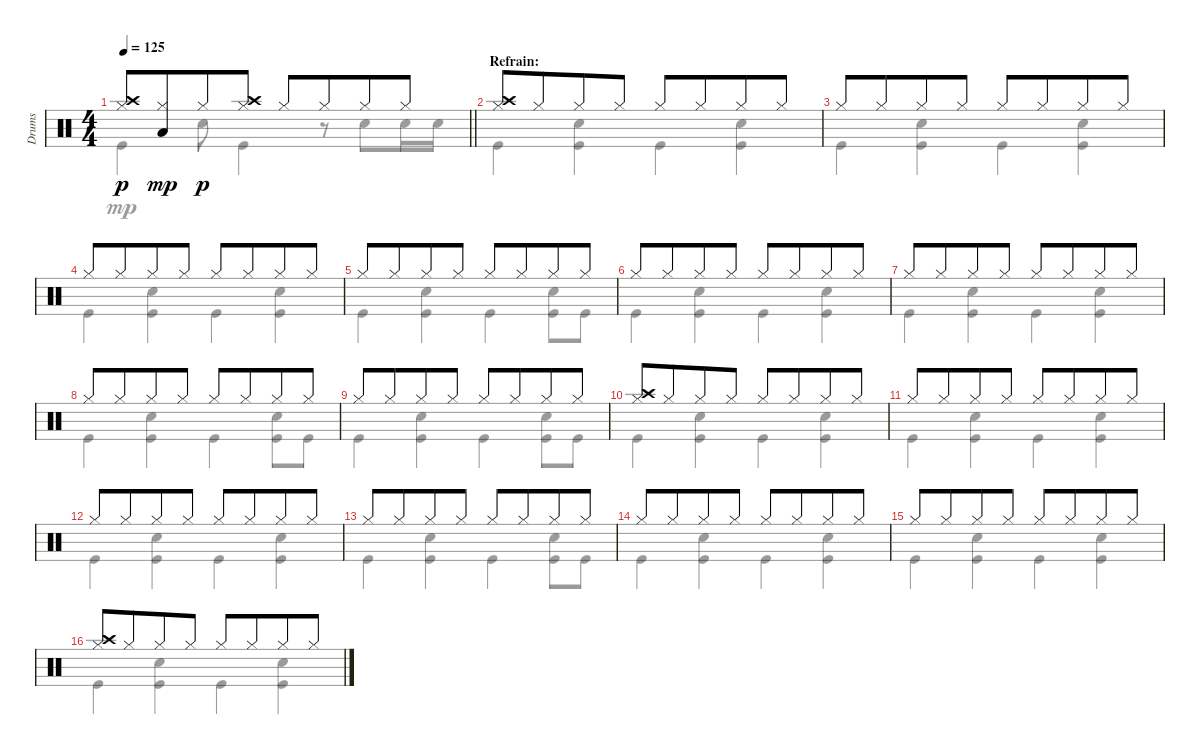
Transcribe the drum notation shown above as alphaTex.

\track ("Drums" "Drums") {instrument percussion}
\staff {score}
\articulation defaults
\voice
\ts (4 4)
\tempo 125
\clef neutral
\barLineRight lightlight
\ks c
("Hi-Hat (closed)" "Crash high (hit)").8{dy p} ("Hi-Hat (closed)" "Low Tom (hit)").8{dy mp beam merge} "Hi-Hat (closed)".8{dy p} ("Hi-Hat (closed)" "Crash high (hit)").8 "Hi-Hat (closed)".8 "Hi-Hat (closed)".8{beam merge} "Hi-Hat (closed)".8 "Hi-Hat (closed)".8 |
\section ("" "Refrain:")
("Hi-Hat (closed)" "Crash high (hit)").8 "Hi-Hat (closed)".8{beam merge} "Hi-Hat (closed)".8 "Hi-Hat (closed)".8 "Hi-Hat (closed)".8 "Hi-Hat (closed)".8{beam merge} "Hi-Hat (closed)".8 "Hi-Hat (closed)".8 |
"Hi-Hat (closed)".8 "Hi-Hat (closed)".8{beam merge} "Hi-Hat (closed)".8 "Hi-Hat (closed)".8 "Hi-Hat (closed)".8 "Hi-Hat (closed)".8{beam merge} "Hi-Hat (closed)".8 "Hi-Hat (closed)".8 |
"Hi-Hat (closed)".8 "Hi-Hat (closed)".8{beam merge} "Hi-Hat (closed)".8 "Hi-Hat (closed)".8 "Hi-Hat (closed)".8 "Hi-Hat (closed)".8{beam merge} "Hi-Hat (closed)".8 "Hi-Hat (closed)".8 |
"Hi-Hat (closed)".8 "Hi-Hat (closed)".8{beam merge} "Hi-Hat (closed)".8 "Hi-Hat (closed)".8 "Hi-Hat (closed)".8 "Hi-Hat (closed)".8{beam merge} "Hi-Hat (closed)".8 "Hi-Hat (closed)".8 |
"Hi-Hat (closed)".8 "Hi-Hat (closed)".8{beam merge} "Hi-Hat (closed)".8 "Hi-Hat (closed)".8 "Hi-Hat (closed)".8 "Hi-Hat (closed)".8{beam merge} "Hi-Hat (closed)".8 "Hi-Hat (closed)".8 |
"Hi-Hat (closed)".8 "Hi-Hat (closed)".8{beam merge} "Hi-Hat (closed)".8 "Hi-Hat (closed)".8 "Hi-Hat (closed)".8 "Hi-Hat (closed)".8{beam merge} "Hi-Hat (closed)".8 "Hi-Hat (closed)".8 |
"Hi-Hat (closed)".8 "Hi-Hat (closed)".8{beam merge} "Hi-Hat (closed)".8 "Hi-Hat (closed)".8 "Hi-Hat (closed)".8 "Hi-Hat (closed)".8{beam merge} "Hi-Hat (closed)".8 "Hi-Hat (closed)".8 |
"Hi-Hat (closed)".8 "Hi-Hat (closed)".8{beam merge} "Hi-Hat (closed)".8 "Hi-Hat (closed)".8 "Hi-Hat (closed)".8 "Hi-Hat (closed)".8{beam merge} "Hi-Hat (closed)".8 "Hi-Hat (closed)".8 |
("Hi-Hat (closed)" "Crash high (hit)").8 "Hi-Hat (closed)".8{beam merge} "Hi-Hat (closed)".8 "Hi-Hat (closed)".8 "Hi-Hat (closed)".8 "Hi-Hat (closed)".8{beam merge} "Hi-Hat (closed)".8 "Hi-Hat (closed)".8 |
"Hi-Hat (closed)".8 "Hi-Hat (closed)".8{beam merge} "Hi-Hat (closed)".8 "Hi-Hat (closed)".8 "Hi-Hat (closed)".8 "Hi-Hat (closed)".8{beam merge} "Hi-Hat (closed)".8 "Hi-Hat (closed)".8 |
"Hi-Hat (closed)".8 "Hi-Hat (closed)".8{beam merge} "Hi-Hat (closed)".8 "Hi-Hat (closed)".8 "Hi-Hat (closed)".8 "Hi-Hat (closed)".8{beam merge} "Hi-Hat (closed)".8 "Hi-Hat (closed)".8 |
"Hi-Hat (closed)".8 "Hi-Hat (closed)".8{beam merge} "Hi-Hat (closed)".8 "Hi-Hat (closed)".8 "Hi-Hat (closed)".8 "Hi-Hat (closed)".8{beam merge} "Hi-Hat (closed)".8 "Hi-Hat (closed)".8 |
"Hi-Hat (closed)".8 "Hi-Hat (closed)".8{beam merge} "Hi-Hat (closed)".8 "Hi-Hat (closed)".8 "Hi-Hat (closed)".8 "Hi-Hat (closed)".8{beam merge} "Hi-Hat (closed)".8 "Hi-Hat (closed)".8 |
"Hi-Hat (closed)".8 "Hi-Hat (closed)".8{beam merge} "Hi-Hat (closed)".8 "Hi-Hat (closed)".8 "Hi-Hat (closed)".8 "Hi-Hat (closed)".8{beam merge} "Hi-Hat (closed)".8 "Hi-Hat (closed)".8 |
("Hi-Hat (closed)" "Crash high (hit)").8 "Hi-Hat (closed)".8{beam merge} "Hi-Hat (closed)".8 "Hi-Hat (closed)".8 "Hi-Hat (closed)".8 "Hi-Hat (closed)".8{beam merge} "Hi-Hat (closed)".8 "Hi-Hat (closed)".8
\voice
\clef neutral
\ottava regular
\simile none
\barLineRight lightlight
\ks c "Kick (hit)".4{dy mp} "Snare (hit) 2".8 "Kick (hit)".4
r.8 "Snare (hit) 2".8 "Snare (hit) 2".16 "Snare (hit) 2".16 |
"Kick (hit)".4 ("Snare (hit) 2" "Kick (hit)").4 "Kick (hit)".4 ("Snare (hit) 2" "Kick (hit)").4 |
"Kick (hit)".4 ("Snare (hit) 2" "Kick (hit)").4 "Kick (hit)".4 ("Snare (hit) 2" "Kick (hit)").4 |
"Kick (hit)".4 ("Snare (hit) 2" "Kick (hit)").4 "Kick (hit)".4 ("Snare (hit) 2" "Kick (hit)").4 |
"Kick (hit)".4 ("Snare (hit) 2" "Kick (hit)").4 "Kick (hit)".4 ("Snare (hit) 2" "Kick (hit)").8 "Kick (hit)".8 |
"Kick (hit)".4 ("Snare (hit) 2" "Kick (hit)").4 "Kick (hit)".4 ("Snare (hit) 2" "Kick (hit)").4 |
"Kick (hit)".4 ("Snare (hit) 2" "Kick (hit)").4 "Kick (hit)".4 ("Snare (hit) 2" "Kick (hit)").4 |
"Kick (hit)".4 ("Snare (hit) 2" "Kick (hit)").4 "Kick (hit)".4 ("Snare (hit) 2" "Kick (hit)").8 "Kick (hit)".8 |
"Kick (hit)".4 ("Snare (hit) 2" "Kick (hit)").4 "Kick (hit)".4 ("Snare (hit) 2" "Kick (hit)").8 "Kick (hit)".8 |
"Kick (hit)".4 ("Snare (hit) 2" "Kick (hit)").4 "Kick (hit)".4 ("Snare (hit) 2" "Kick (hit)").4 |
"Kick (hit)".4 ("Snare (hit) 2" "Kick (hit)").4 "Kick (hit)".4 ("Snare (hit) 2" "Kick (hit)").4 |
"Kick (hit)".4 ("Snare (hit) 2" "Kick (hit)").4 "Kick (hit)".4 ("Snare (hit) 2" "Kick (hit)").4 |
"Kick (hit)".4 ("Snare (hit) 2" "Kick (hit)").4 "Kick (hit)".4 ("Snare (hit) 2" "Kick (hit)").8 "Kick (hit)".8 |
"Kick (hit)".4 ("Snare (hit) 2" "Kick (hit)").4 "Kick (hit)".4 ("Snare (hit) 2" "Kick (hit)").4 |
"Kick (hit)".4 ("Snare (hit) 2" "Kick (hit)").4 "Kick (hit)".4 ("Snare (hit) 2" "Kick (hit)").4 |
"Kick (hit)".4 ("Snare (hit) 2" "Kick (hit)").4 "Kick (hit)".4 ("Snare (hit) 2" "Kick (hit)").4
